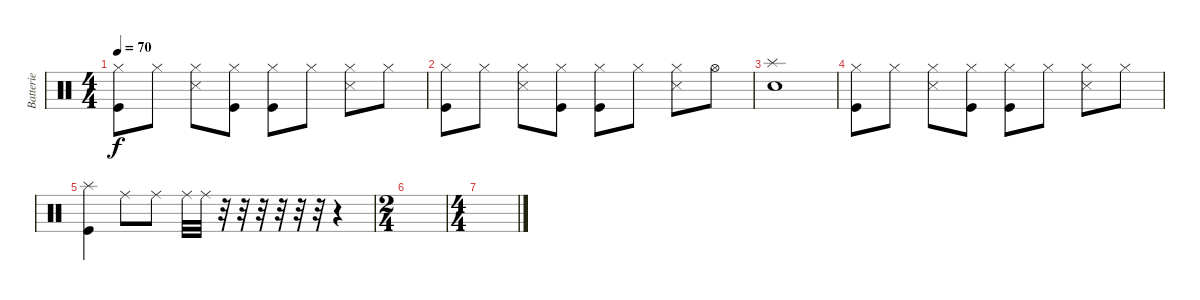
\track ("Batterie" "Batterie") {instrument percussion}
\staff {score}
\articulation defaults
\ts (4 4)
\tempo 70
\clef neutral
\ks c
("Hi-Hat (closed)" "Kick (hit)").8{dy f} "Hi-Hat (closed)".8 ("Hi-Hat (closed)" "Snare (side stick) 3").8 ("Hi-Hat (closed)" "Kick (hit)").8 ("Hi-Hat (closed)" "Kick (hit)").8 "Hi-Hat (closed)".8 ("Hi-Hat (closed)" "Snare (side stick) 3").8 "Hi-Hat (closed)".8 |
("Hi-Hat (closed)" "Kick (hit)").8 "Hi-Hat (closed)".8 ("Hi-Hat (closed)" "Snare (side stick) 3").8 ("Hi-Hat (closed)" "Kick (hit)").8 ("Hi-Hat (closed)" "Kick (hit)").8 "Hi-Hat (closed)".8 ("Hi-Hat (closed)" "Snare (side stick) 3").8 "Hi-Hat (open)".8 |
("Splash (hit)" "Snare (hit) 2").1 |
("Hi-Hat (closed)" "Kick (hit)").8 "Hi-Hat (closed)".8 ("Hi-Hat (closed)" "Snare (side stick) 3").8 ("Hi-Hat (closed)" "Kick (hit)").8 ("Hi-Hat (closed)" "Kick (hit)").8 "Hi-Hat (closed)".8 ("Hi-Hat (closed)" "Snare (side stick) 3").8 "Hi-Hat (closed)".8 |
("Splash (hit)" "Kick (hit)").4 "Ride (middle)".8 "Ride (middle)".8 "Ride (middle)".32 "Ride (middle)".32 r.32 r.32 r.32 r.32 r.32 r.32 r.4 |
\ts (2 4)
|
\ts (4 4)
